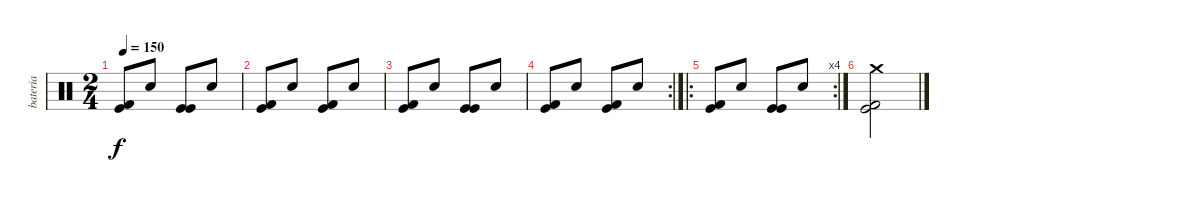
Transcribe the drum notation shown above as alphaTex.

\track ("bateria" "bateria") {instrument percussion}
\staff {score}
\articulation defaults
\ts (2 4)
\tempo 150
\clef neutral
\ks c
("Kick (hit) 2" "Kick (hit)").8{dy f} "Electric Snare (hit)".8 ("Kick (hit)" "Kick (hit)").8 "Electric Snare (hit)".8 |
("Kick (hit) 2" "Kick (hit)").8 "Electric Snare (hit)".8 ("Kick (hit) 2" "Kick (hit)").8 "Electric Snare (hit)".8 |
("Kick (hit) 2" "Kick (hit)").8 "Electric Snare (hit)".8 ("Kick (hit)" "Kick (hit)").8 "Electric Snare (hit)".8 |
\rc 2
("Kick (hit) 2" "Kick (hit)").8 "Electric Snare (hit)".8 ("Kick (hit) 2" "Kick (hit)").8 "Electric Snare (hit)".8 |
\ro
\rc 4
("Kick (hit) 2" "Kick (hit)").8 "Electric Snare (hit)".8 ("Kick (hit)" "Kick (hit)").8 "Electric Snare (hit)".8 |
("Crash medium (hit)" "Kick (hit) 2" "Kick (hit)").2
